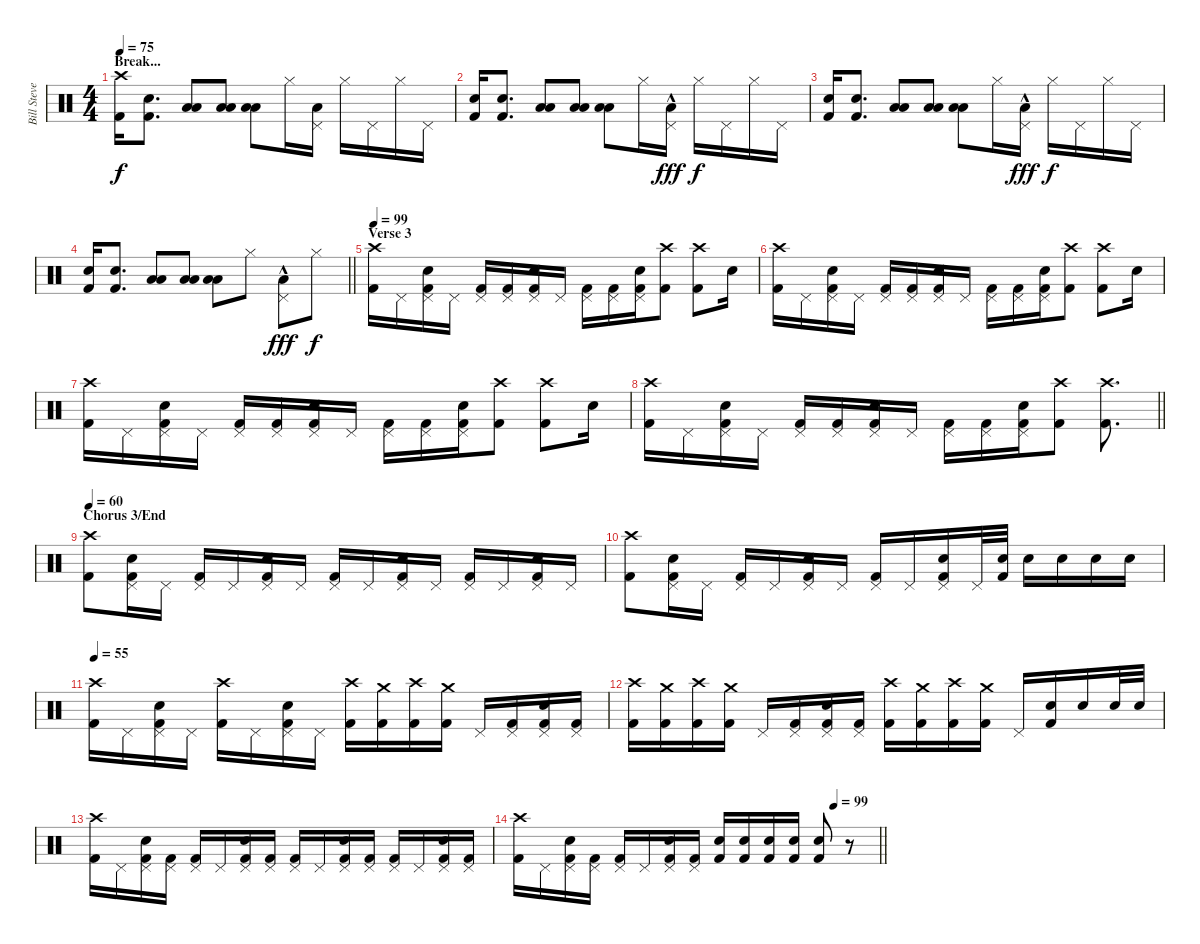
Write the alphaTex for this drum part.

\track ("Bill Stevenson (Drums)" "Bill Steve") {instrument percussion}
\staff {score}
\articulation defaults
\ts (4 4)
\section ("" "Break...")
\tempo 75
\clef neutral
\ks c
("Kick (hit) 2" "Crash high (hit)").16{dy f} ("Kick (hit) 2" "Snare (hit) 2").8{d} ("Low Tom (hit)" "Low Floor Tom (hit)").8 ("Low Tom (hit)" "Low Floor Tom (hit)").8 ("Low Tom (hit)" "Low Floor Tom (hit)").8 "Hi-Hat (closed)".16 ("Low Tom (hit)" "Pedal Hi-Hat (hit)").16 "Hi-Hat (closed)".16 "Pedal Hi-Hat (hit)".16 "Hi-Hat (closed)".16 "Pedal Hi-Hat (hit)".16 |
("Kick (hit) 2" "Snare (hit) 2").16 ("Kick (hit) 2" "Snare (hit) 2").8{d} ("Low Tom (hit)" "Low Floor Tom (hit)").8 ("Low Tom (hit)" "Low Floor Tom (hit)").8 ("Low Tom (hit)" "Low Floor Tom (hit)").8 "Hi-Hat (closed)".16 ("Low Floor Tom (hit)"{hac} "Pedal Hi-Hat (hit)").16{dy fff} "Hi-Hat (closed)".16{dy f} "Pedal Hi-Hat (hit)".16 "Hi-Hat (closed)".16 "Pedal Hi-Hat (hit)".16 |
("Kick (hit) 2" "Snare (hit) 2").16 ("Kick (hit) 2" "Snare (hit) 2").8{d} ("Low Tom (hit)" "Low Floor Tom (hit)").8 ("Low Tom (hit)" "Low Floor Tom (hit)").8 ("Low Tom (hit)" "Low Floor Tom (hit)").8 "Hi-Hat (closed)".16 ("Low Floor Tom (hit)"{hac} "Pedal Hi-Hat (hit)").16{dy fff} "Hi-Hat (closed)".16{dy f} "Pedal Hi-Hat (hit)".16 "Hi-Hat (closed)".16 "Pedal Hi-Hat (hit)".16 |
\barLineRight lightlight
("Kick (hit) 2" "Snare (hit) 2").16 ("Kick (hit) 2" "Snare (hit) 2").8{d} ("Low Tom (hit)" "Low Floor Tom (hit)").8 ("Low Tom (hit)" "Low Floor Tom (hit)").8 ("Low Tom (hit)" "Low Floor Tom (hit)").8 "Hi-Hat (closed)".8 ("Low Floor Tom (hit)"{hac} "Pedal Hi-Hat (hit)").8{dy fff} "Hi-Hat (closed)".8{dy f} |
\section ("" "Verse 3")
\tempo 99
("Kick (hit) 2" "Crash high (hit)").16 "Pedal Hi-Hat (hit)".16 ("Kick (hit) 2" "Snare (hit) 2" "Pedal Hi-Hat (hit)").16 "Pedal Hi-Hat (hit)".16 ("Kick (hit) 2" "Pedal Hi-Hat (hit)").16 ("Kick (hit) 2" "Pedal Hi-Hat (hit)").16 ("Kick (hit) 2" "Snare (hit) 2" "Pedal Hi-Hat (hit)").16 "Pedal Hi-Hat (hit)".16 ("Kick (hit) 2" "Pedal Hi-Hat (hit)").16 ("Kick (hit) 2" "Pedal Hi-Hat (hit)").16 ("Kick (hit) 2" "Snare (hit) 2" "Pedal Hi-Hat (hit)").16 ("Kick (hit) 2" "Crash high (hit)").8 ("Kick (hit) 2" "Crash high (hit)").8 "Snare (hit) 2".16 |
("Kick (hit) 2" "Crash high (hit)").16 "Pedal Hi-Hat (hit)".16 ("Kick (hit) 2" "Snare (hit) 2" "Pedal Hi-Hat (hit)").16 "Pedal Hi-Hat (hit)".16 ("Kick (hit) 2" "Pedal Hi-Hat (hit)").16 ("Kick (hit) 2" "Pedal Hi-Hat (hit)").16 ("Kick (hit) 2" "Snare (hit) 2" "Pedal Hi-Hat (hit)").16 "Pedal Hi-Hat (hit)".16 ("Kick (hit) 2" "Pedal Hi-Hat (hit)").16 ("Kick (hit) 2" "Pedal Hi-Hat (hit)").16 ("Kick (hit) 2" "Snare (hit) 2" "Pedal Hi-Hat (hit)").16 ("Kick (hit) 2" "Crash high (hit)").8 ("Kick (hit) 2" "Crash high (hit)").8 "Snare (hit) 2".16 |
("Kick (hit) 2" "Crash high (hit)").16 "Pedal Hi-Hat (hit)".16 ("Kick (hit) 2" "Snare (hit) 2" "Pedal Hi-Hat (hit)").16 "Pedal Hi-Hat (hit)".16 ("Kick (hit) 2" "Pedal Hi-Hat (hit)").16 ("Kick (hit) 2" "Pedal Hi-Hat (hit)").16 ("Kick (hit) 2" "Snare (hit) 2" "Pedal Hi-Hat (hit)").16 "Pedal Hi-Hat (hit)".16 ("Kick (hit) 2" "Pedal Hi-Hat (hit)").16 ("Kick (hit) 2" "Pedal Hi-Hat (hit)").16 ("Kick (hit) 2" "Snare (hit) 2" "Pedal Hi-Hat (hit)").16 ("Kick (hit) 2" "Crash high (hit)").8 ("Kick (hit) 2" "Crash high (hit)").8 "Snare (hit) 2".16 |
\barLineRight lightlight
("Kick (hit) 2" "Crash high (hit)").16 "Pedal Hi-Hat (hit)".16 ("Kick (hit) 2" "Snare (hit) 2" "Pedal Hi-Hat (hit)").16 "Pedal Hi-Hat (hit)".16 ("Kick (hit) 2" "Pedal Hi-Hat (hit)").16 ("Kick (hit) 2" "Pedal Hi-Hat (hit)").16 ("Kick (hit) 2" "Snare (hit) 2" "Pedal Hi-Hat (hit)").16 "Pedal Hi-Hat (hit)".16 ("Kick (hit) 2" "Pedal Hi-Hat (hit)").16 ("Kick (hit) 2" "Pedal Hi-Hat (hit)").16 ("Kick (hit) 2" "Snare (hit) 2" "Pedal Hi-Hat (hit)").16 ("Kick (hit) 2" "Crash high (hit)").8 ("Kick (hit) 2" "Crash high (hit)").8{d} |
\section ("" "Chorus 3/End")
\tempo 60
("Kick (hit) 2" "Crash high (hit)").8 ("Kick (hit) 2" "Snare (hit) 2" "Pedal Hi-Hat (hit)").16 "Pedal Hi-Hat (hit)".16 ("Kick (hit) 2" "Pedal Hi-Hat (hit)").16 "Pedal Hi-Hat (hit)".16 ("Kick (hit) 2" "Snare (hit) 2" "Pedal Hi-Hat (hit)").16 "Pedal Hi-Hat (hit)".16 ("Kick (hit) 2" "Pedal Hi-Hat (hit)").16 "Pedal Hi-Hat (hit)".16 ("Kick (hit) 2" "Snare (hit) 2" "Pedal Hi-Hat (hit)").16 "Pedal Hi-Hat (hit)".16 ("Kick (hit) 2" "Pedal Hi-Hat (hit)").16 "Pedal Hi-Hat (hit)".16 ("Kick (hit) 2" "Snare (hit) 2" "Pedal Hi-Hat (hit)").16 "Pedal Hi-Hat (hit)".16 |
("Kick (hit) 2" "Crash high (hit)").8 ("Kick (hit) 2" "Snare (hit) 2" "Pedal Hi-Hat (hit)").16 "Pedal Hi-Hat (hit)".16 ("Kick (hit) 2" "Pedal Hi-Hat (hit)").16 "Pedal Hi-Hat (hit)".16 ("Kick (hit) 2" "Snare (hit) 2" "Pedal Hi-Hat (hit)").16 "Pedal Hi-Hat (hit)".16 ("Kick (hit) 2" "Pedal Hi-Hat (hit)").16 "Pedal Hi-Hat (hit)".16 ("Kick (hit) 2" "Snare (hit) 2" "Pedal Hi-Hat (hit)").16 "Pedal Hi-Hat (hit)".32 ("Kick (hit) 2" "Snare (hit) 2").32 "Snare (hit) 2".16 "Snare (hit) 2".16 "Snare (hit) 2".16 "Snare (hit) 2".16 |
\tempo 55
("Kick (hit) 2" "Crash high (hit)").16 "Pedal Hi-Hat (hit)".16 ("Kick (hit) 2" "Snare (hit) 2" "Pedal Hi-Hat (hit)").16 "Pedal Hi-Hat (hit)".16 ("Kick (hit) 2" "Crash high (hit)").16 "Pedal Hi-Hat (hit)".16 ("Kick (hit) 2" "Snare (hit) 2" "Pedal Hi-Hat (hit)").16 "Pedal Hi-Hat (hit)".16 ("Kick (hit) 2" "Crash high (hit)").16 ("Kick (hit) 2" "Crash medium (hit)").16 ("Kick (hit) 2" "Crash high (hit)").16 ("Kick (hit) 2" "Crash medium (hit)").16 "Pedal Hi-Hat (hit)".16 ("Kick (hit) 2" "Pedal Hi-Hat (hit)").16 ("Kick (hit) 2" "Snare (hit) 2" "Pedal Hi-Hat (hit)").16 ("Kick (hit) 2" "Pedal Hi-Hat (hit)").16 |
("Kick (hit) 2" "Crash high (hit)").16 ("Kick (hit) 2" "Crash medium (hit)").16 ("Kick (hit) 2" "Crash high (hit)").16 ("Kick (hit) 2" "Crash medium (hit)").16 "Pedal Hi-Hat (hit)".16 ("Kick (hit) 2" "Pedal Hi-Hat (hit)").16 ("Kick (hit) 2" "Snare (hit) 2" "Pedal Hi-Hat (hit)").16 ("Kick (hit) 2" "Pedal Hi-Hat (hit)").16 ("Kick (hit) 2" "Crash high (hit)").16 ("Kick (hit) 2" "Crash medium (hit)").16 ("Kick (hit) 2" "Crash high (hit)").16 ("Kick (hit) 2" "Crash medium (hit)").16 "Pedal Hi-Hat (hit)".16 ("Kick (hit) 2" "Snare (hit) 2").16 "Snare (hit) 2".16 "Snare (hit) 2".32 "Snare (hit) 2".32 |
("Kick (hit) 2" "Crash high (hit)").16 "Pedal Hi-Hat (hit)".16 ("Kick (hit) 2" "Snare (hit) 2" "Pedal Hi-Hat (hit)").16 ("Kick (hit) 2" "Pedal Hi-Hat (hit)").16 ("Kick (hit) 2" "Pedal Hi-Hat (hit)").16 "Pedal Hi-Hat (hit)".16 ("Kick (hit) 2" "Snare (hit) 2" "Pedal Hi-Hat (hit)").16 ("Kick (hit) 2" "Pedal Hi-Hat (hit)").16 ("Kick (hit) 2" "Pedal Hi-Hat (hit)").16 "Pedal Hi-Hat (hit)".16 ("Kick (hit) 2" "Snare (hit) 2" "Pedal Hi-Hat (hit)").16 ("Kick (hit) 2" "Pedal Hi-Hat (hit)").16 ("Kick (hit) 2" "Pedal Hi-Hat (hit)").16 "Pedal Hi-Hat (hit)".16 ("Kick (hit) 2" "Snare (hit) 2" "Pedal Hi-Hat (hit)").16 ("Kick (hit) 2" "Pedal Hi-Hat (hit)").16 |
\tempo (99 0.875)
\barLineRight lightlight
("Kick (hit) 2" "Crash high (hit)").16 "Pedal Hi-Hat (hit)".16 ("Kick (hit) 2" "Snare (hit) 2" "Pedal Hi-Hat (hit)").16 ("Kick (hit) 2" "Pedal Hi-Hat (hit)").16 ("Kick (hit) 2" "Pedal Hi-Hat (hit)").16 "Pedal Hi-Hat (hit)".16 ("Kick (hit) 2" "Snare (hit) 2" "Pedal Hi-Hat (hit)").16 ("Kick (hit) 2" "Pedal Hi-Hat (hit)").16 ("Kick (hit) 2" "Snare (hit) 2").16 ("Kick (hit) 2" "Snare (hit) 2").16 ("Kick (hit) 2" "Snare (hit) 2").16 ("Kick (hit) 2" "Snare (hit) 2").16 ("Kick (hit) 2" "Snare (hit) 2").8 r.8
